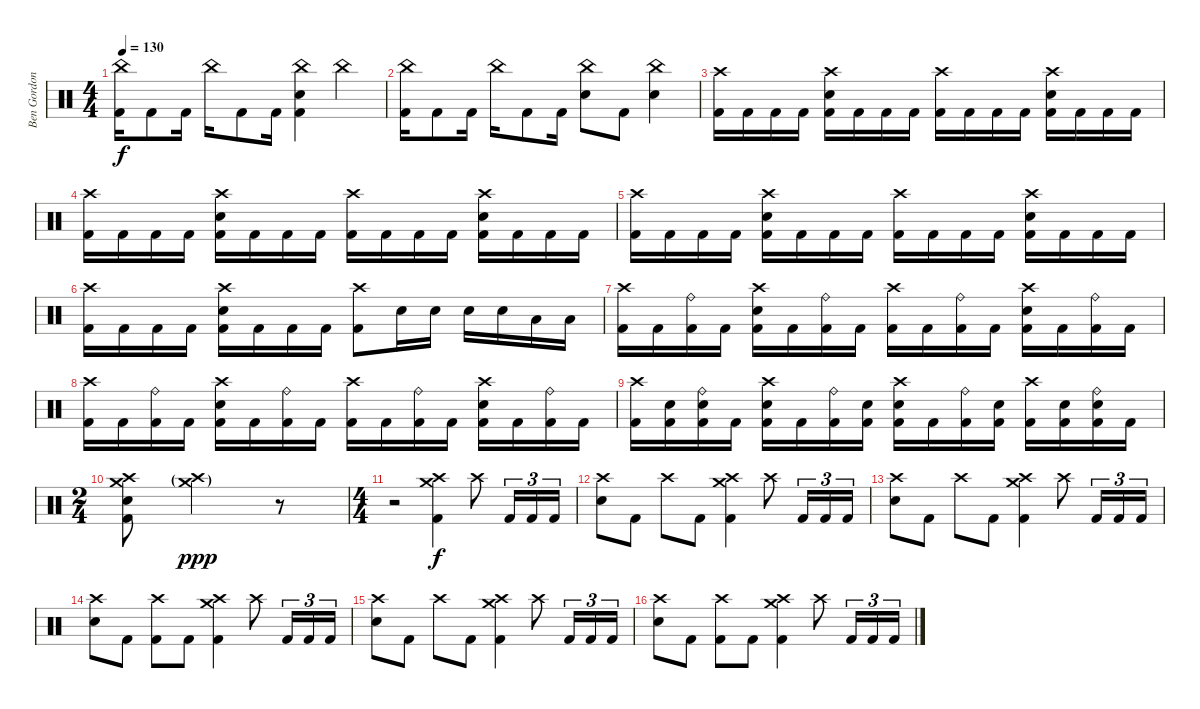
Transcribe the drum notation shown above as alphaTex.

\track ("Ben Gordon" "Ben Gordon") {instrument percussion}
\staff {score}
\articulation defaults
\ts (4 4)
\tempo 130
\clef neutral
\ks c
("China (hit)" "Kick (hit) 2").16{dy f} "Kick (hit) 2".8 "Kick (hit) 2".16 "China (hit)".16 "Kick (hit) 2".8 "Kick (hit) 2".16 ("China (hit)" "Snare (hit) 2" "Kick (hit) 2").4 "China (hit)".4 |
("China (hit)" "Kick (hit) 2").16 "Kick (hit) 2".8 "Kick (hit) 2".16 "China (hit)".16 "Kick (hit) 2".8 "Kick (hit) 2".16 ("China (hit)" "Snare (hit) 2").8 "Kick (hit) 2".8 ("China (hit)" "Snare (hit) 2").4 |
("Crash high (hit)" "Kick (hit) 2").16 "Kick (hit) 2".16 "Kick (hit) 2".16 "Kick (hit) 2".16 ("Crash high (hit)" "Snare (hit) 2" "Kick (hit) 2").16 "Kick (hit) 2".16 "Kick (hit) 2".16 "Kick (hit) 2".16 ("Crash high (hit)" "Kick (hit) 2").16 "Kick (hit) 2".16 "Kick (hit) 2".16 "Kick (hit) 2".16 ("Crash high (hit)" "Snare (hit) 2" "Kick (hit) 2").16 "Kick (hit) 2".16 "Kick (hit) 2".16 "Kick (hit) 2".16 |
("Crash high (hit)" "Kick (hit) 2").16 "Kick (hit) 2".16 "Kick (hit) 2".16 "Kick (hit) 2".16 ("Crash high (hit)" "Snare (hit) 2" "Kick (hit) 2").16 "Kick (hit) 2".16 "Kick (hit) 2".16 "Kick (hit) 2".16 ("Crash high (hit)" "Kick (hit) 2").16 "Kick (hit) 2".16 "Kick (hit) 2".16 "Kick (hit) 2".16 ("Crash high (hit)" "Snare (hit) 2" "Kick (hit) 2").16 "Kick (hit) 2".16 "Kick (hit) 2".16 "Kick (hit) 2".16 |
("Crash high (hit)" "Kick (hit) 2").16 "Kick (hit) 2".16 "Kick (hit) 2".16 "Kick (hit) 2".16 ("Crash high (hit)" "Snare (hit) 2" "Kick (hit) 2").16 "Kick (hit) 2".16 "Kick (hit) 2".16 "Kick (hit) 2".16 ("Crash high (hit)" "Kick (hit) 2").16 "Kick (hit) 2".16 "Kick (hit) 2".16 "Kick (hit) 2".16 ("Crash high (hit)" "Snare (hit) 2" "Kick (hit) 2").16 "Kick (hit) 2".16 "Kick (hit) 2".16 "Kick (hit) 2".16 |
("Crash high (hit)" "Kick (hit) 2").16 "Kick (hit) 2".16 "Kick (hit) 2".16 "Kick (hit) 2".16 ("Crash high (hit)" "Snare (hit) 2" "Kick (hit) 2").16 "Kick (hit) 2".16 "Kick (hit) 2".16 "Kick (hit) 2".16 ("Crash high (hit)" "Kick (hit) 2").8 "Snare (hit) 2".16 "Snare (hit) 2".16 "Snare (hit) 2".16 "Snare (hit) 2".16 "Low Tom (hit)".16 "Low Tom (hit)".16 |
("Crash high (hit)" "Kick (hit) 2").16 "Kick (hit) 2".16 ("Ride (bell)" "Kick (hit) 2").16 "Kick (hit) 2".16 ("Crash high (hit)" "Snare (hit) 2" "Kick (hit) 2").16 "Kick (hit) 2".16 ("Ride (bell)" "Kick (hit) 2").16 "Kick (hit) 2".16 ("Crash high (hit)" "Kick (hit) 2").16 "Kick (hit) 2".16 ("Ride (bell)" "Kick (hit) 2").16 "Kick (hit) 2".16 ("Crash high (hit)" "Snare (hit) 2" "Kick (hit) 2").16 "Kick (hit) 2".16 ("Ride (bell)" "Kick (hit) 2").16 "Kick (hit) 2".16 |
("Crash high (hit)" "Kick (hit) 2").16 "Kick (hit) 2".16 ("Ride (bell)" "Kick (hit) 2").16 "Kick (hit) 2".16 ("Crash high (hit)" "Snare (hit) 2" "Kick (hit) 2").16 "Kick (hit) 2".16 ("Ride (bell)" "Kick (hit) 2").16 "Kick (hit) 2".16 ("Crash high (hit)" "Kick (hit) 2").16 "Kick (hit) 2".16 ("Ride (bell)" "Kick (hit) 2").16 "Kick (hit) 2".16 ("Crash high (hit)" "Snare (hit) 2" "Kick (hit) 2").16 "Kick (hit) 2".16 ("Ride (bell)" "Kick (hit) 2").16 "Kick (hit) 2".16 |
("Crash high (hit)" "Kick (hit) 2").16 ("Snare (hit) 2" "Kick (hit) 2").16 ("Ride (bell)" "Snare (hit) 2" "Kick (hit) 2").16 "Kick (hit) 2".16 ("Crash high (hit)" "Snare (hit) 2" "Kick (hit) 2").16 "Kick (hit) 2".16 ("Ride (bell)" "Kick (hit) 2").16 ("Snare (hit) 2" "Kick (hit) 2").16 ("Crash high (hit)" "Snare (hit) 2" "Kick (hit) 2").16 "Kick (hit) 2".16 ("Ride (bell)" "Kick (hit) 2").16 ("Snare (hit) 2" "Kick (hit) 2").16 ("Crash high (hit)" "Kick (hit) 2").16 ("Snare (hit) 2" "Kick (hit) 2").16 ("Ride (bell)" "Snare (hit) 2" "Kick (hit) 2").16 "Kick (hit) 2".16 |
\ts (2 4)
("Crash high (hit)" "Crash medium (hit)" "Snare (hit) 2" "Kick (hit) 2").8 ("Crash high (hit)"{g} "Crash medium (hit)"{g}).4{dy ppp} r.8 |
\ts (4 4)
r.2{volume 15} ("Crash medium (hit)" "Crash high (hit)" "Kick (hit) 2").4{dy f} "Crash high (hit)".8 "Kick (hit) 2".16{tu (3 2)} "Kick (hit) 2".16{tu (3 2)} "Kick (hit) 2".16{tu (3 2)} |
("Crash high (hit)" "Snare (hit) 2").8 "Kick (hit) 2".8 "Crash high (hit)".8 "Kick (hit) 2".8 ("Crash medium (hit)" "Crash high (hit)" "Kick (hit) 2").4 "Crash high (hit)".8 "Kick (hit) 2".16{tu (3 2)} "Kick (hit) 2".16{tu (3 2)} "Kick (hit) 2".16{tu (3 2)} |
("Crash high (hit)" "Snare (hit) 2").8 "Kick (hit) 2".8 "Crash high (hit)".8 "Kick (hit) 2".8 ("Crash medium (hit)" "Crash high (hit)" "Kick (hit) 2").4 "Crash high (hit)".8 "Kick (hit) 2".16{tu (3 2)} "Kick (hit) 2".16{tu (3 2)} "Kick (hit) 2".16{tu (3 2)} |
("Crash high (hit)" "Snare (hit) 2").8 "Kick (hit) 2".8 ("Crash high (hit)" "Kick (hit) 2").8 "Kick (hit) 2".8 ("Crash medium (hit)" "Crash high (hit)" "Kick (hit) 2").4 "Crash high (hit)".8 "Kick (hit) 2".16{tu (3 2)} "Kick (hit) 2".16{tu (3 2)} "Kick (hit) 2".16{tu (3 2)} |
("Crash high (hit)" "Snare (hit) 2").8 "Kick (hit) 2".8 "Crash high (hit)".8 "Kick (hit) 2".8 ("Crash medium (hit)" "Crash high (hit)" "Kick (hit) 2").4 "Crash high (hit)".8 "Kick (hit) 2".16{tu (3 2)} "Kick (hit) 2".16{tu (3 2)} "Kick (hit) 2".16{tu (3 2)} |
("Crash high (hit)" "Snare (hit) 2").8 "Kick (hit) 2".8 ("Crash high (hit)" "Kick (hit) 2").8 "Kick (hit) 2".8 ("Crash medium (hit)" "Crash high (hit)" "Kick (hit) 2").4 "Crash high (hit)".8 "Kick (hit) 2".16{tu (3 2)} "Kick (hit) 2".16{tu (3 2)} "Kick (hit) 2".16{tu (3 2)}
